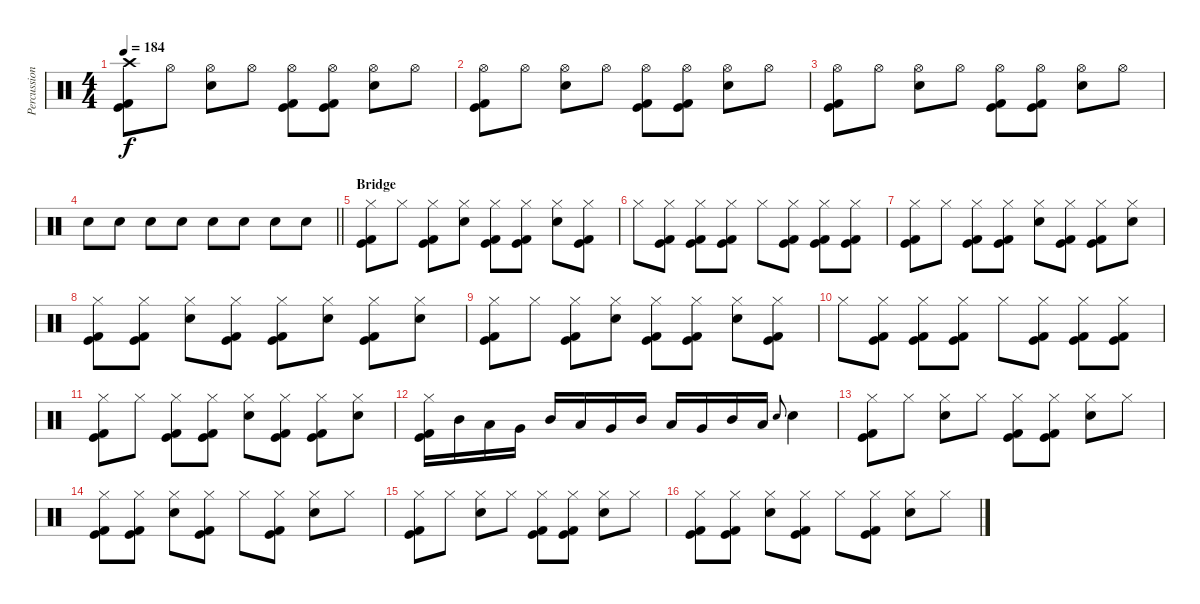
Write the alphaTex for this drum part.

\track ("Percussion" "Percussion") {instrument percussion}
\staff {score}
\articulation defaults
\ts (4 4)
\tempo 184
\clef neutral
\ks c
("Crash high (hit)" "Kick (hit)" "Kick (hit) 2").8{dy f} "Hi-Hat (open)".8 ("Hi-Hat (open)" "Electric Snare (hit)").8 "Hi-Hat (open)".8 ("Hi-Hat (open)" "Kick (hit)" "Kick (hit) 2").8 ("Hi-Hat (open)" "Kick (hit)" "Kick (hit) 2").8 ("Hi-Hat (open)" "Electric Snare (hit)").8 "Hi-Hat (open)".8 |
("Hi-Hat (open)" "Kick (hit)" "Kick (hit) 2").8 "Hi-Hat (open)".8 ("Hi-Hat (open)" "Electric Snare (hit)").8 "Hi-Hat (open)".8 ("Hi-Hat (open)" "Kick (hit)" "Kick (hit) 2").8 ("Hi-Hat (open)" "Kick (hit)" "Kick (hit) 2").8 ("Hi-Hat (open)" "Electric Snare (hit)").8 "Hi-Hat (open)".8 |
("Hi-Hat (open)" "Kick (hit)" "Kick (hit) 2").8 "Hi-Hat (open)".8 ("Hi-Hat (open)" "Electric Snare (hit)").8 "Hi-Hat (open)".8 ("Hi-Hat (open)" "Kick (hit)" "Kick (hit) 2").8 ("Hi-Hat (open)" "Kick (hit)" "Kick (hit) 2").8 ("Hi-Hat (open)" "Electric Snare (hit)").8 "Hi-Hat (open)".8 |
\barLineRight lightlight "Electric Snare (hit)".8 "Electric Snare (hit)".8 "Electric Snare (hit)".8 "Electric Snare (hit)".8 "Electric Snare (hit)".8 "Electric Snare (hit)".8 "Electric Snare (hit)".8 "Electric Snare (hit)".8
|
\section ("" "Bridge")
("Hi-Hat (closed)" "Kick (hit)" "Kick (hit) 2").8 "Hi-Hat (closed)".8 ("Hi-Hat (closed)" "Kick (hit)" "Kick (hit) 2").8 ("Hi-Hat (closed)" "Electric Snare (hit)").8 ("Hi-Hat (closed)" "Kick (hit)" "Kick (hit) 2").8 ("Hi-Hat (closed)" "Kick (hit)" "Kick (hit) 2").8 ("Hi-Hat (closed)" "Electric Snare (hit)").8 ("Hi-Hat (closed)" "Kick (hit)" "Kick (hit) 2").8 |
"Hi-Hat (closed)".8 ("Hi-Hat (closed)" "Kick (hit)" "Kick (hit) 2").8 ("Hi-Hat (closed)" "Kick (hit)" "Kick (hit) 2").8 ("Hi-Hat (closed)" "Kick (hit)" "Kick (hit) 2").8 "Hi-Hat (closed)".8 ("Hi-Hat (closed)" "Kick (hit)" "Kick (hit) 2").8 ("Hi-Hat (closed)" "Kick (hit)" "Kick (hit) 2").8 ("Hi-Hat (closed)" "Kick (hit)" "Kick (hit) 2").8 |
("Hi-Hat (closed)" "Kick (hit)" "Kick (hit) 2").8 "Hi-Hat (closed)".8 ("Hi-Hat (closed)" "Kick (hit)" "Kick (hit) 2").8 ("Hi-Hat (closed)" "Kick (hit)" "Kick (hit) 2").8 ("Hi-Hat (closed)" "Electric Snare (hit)").8 ("Hi-Hat (closed)" "Kick (hit)" "Kick (hit) 2").8 ("Hi-Hat (closed)" "Kick (hit)" "Kick (hit) 2").8 ("Hi-Hat (closed)" "Electric Snare (hit)").8 |
("Hi-Hat (closed)" "Kick (hit)" "Kick (hit) 2").8 ("Hi-Hat (closed)" "Kick (hit)" "Kick (hit) 2").8 ("Hi-Hat (closed)" "Electric Snare (hit)").8 ("Hi-Hat (closed)" "Kick (hit)" "Kick (hit) 2").8 ("Hi-Hat (closed)" "Kick (hit)" "Kick (hit) 2").8 ("Hi-Hat (closed)" "Electric Snare (hit)").8 ("Hi-Hat (closed)" "Kick (hit)" "Kick (hit) 2").8 ("Hi-Hat (closed)" "Electric Snare (hit)").8 |
("Hi-Hat (closed)" "Kick (hit)" "Kick (hit) 2").8 "Hi-Hat (closed)".8 ("Hi-Hat (closed)" "Kick (hit)" "Kick (hit) 2").8 ("Hi-Hat (closed)" "Electric Snare (hit)").8 ("Hi-Hat (closed)" "Kick (hit)" "Kick (hit) 2").8 ("Hi-Hat (closed)" "Kick (hit)" "Kick (hit) 2").8 ("Hi-Hat (closed)" "Electric Snare (hit)").8 ("Hi-Hat (closed)" "Kick (hit)" "Kick (hit) 2").8 |
"Hi-Hat (closed)".8 ("Hi-Hat (closed)" "Kick (hit)" "Kick (hit) 2").8 ("Hi-Hat (closed)" "Kick (hit)" "Kick (hit) 2").8 ("Hi-Hat (closed)" "Kick (hit)" "Kick (hit) 2").8 "Hi-Hat (closed)".8 ("Hi-Hat (closed)" "Kick (hit)" "Kick (hit) 2").8 ("Hi-Hat (closed)" "Kick (hit)" "Kick (hit) 2").8 ("Hi-Hat (closed)" "Kick (hit)" "Kick (hit) 2").8 |
("Hi-Hat (closed)" "Kick (hit)" "Kick (hit) 2").8 "Hi-Hat (closed)".8 ("Hi-Hat (closed)" "Kick (hit)" "Kick (hit) 2").8 ("Hi-Hat (closed)" "Kick (hit)" "Kick (hit) 2").8 ("Hi-Hat (closed)" "Electric Snare (hit)").8 ("Hi-Hat (closed)" "Kick (hit)" "Kick (hit) 2").8 ("Hi-Hat (closed)" "Kick (hit)" "Kick (hit) 2").8 ("Hi-Hat (closed)" "Electric Snare (hit)").8 |
("Hi-Hat (closed)" "Kick (hit)" "Kick (hit) 2").16 "Mid Tom (hit)".16 "Low Tom (hit)".16 "Very Low Tom (hit)".16 "Mid Tom (hit)".16 "Low Tom (hit)".16 "Very Low Tom (hit)".16 "Mid Tom (hit)".16 "Low Tom (hit)".16 "Very Low Tom (hit)".16 "Mid Tom (hit)".16 "Low Tom (hit)".16 "Electric Snare (hit)".8{gr onbeat} "Electric Snare (hit)".4 |
("Hi-Hat (closed)" "Kick (hit)" "Kick (hit) 2").8 "Hi-Hat (closed)".8 ("Hi-Hat (closed)" "Electric Snare (hit)").8 "Hi-Hat (closed)".8 ("Hi-Hat (closed)" "Kick (hit)" "Kick (hit) 2").8 ("Hi-Hat (closed)" "Kick (hit)" "Kick (hit) 2").8 ("Hi-Hat (closed)" "Electric Snare (hit)").8 "Hi-Hat (closed)".8 |
("Hi-Hat (closed)" "Kick (hit)" "Kick (hit) 2").8 ("Hi-Hat (closed)" "Kick (hit)" "Kick (hit) 2").8 ("Hi-Hat (closed)" "Electric Snare (hit)").8 ("Hi-Hat (closed)" "Kick (hit)" "Kick (hit) 2").8 "Hi-Hat (closed)".8 ("Hi-Hat (closed)" "Kick (hit)" "Kick (hit) 2").8 ("Hi-Hat (closed)" "Electric Snare (hit)").8 "Hi-Hat (closed)".8 |
("Hi-Hat (closed)" "Kick (hit)" "Kick (hit) 2").8 "Hi-Hat (closed)".8 ("Hi-Hat (closed)" "Electric Snare (hit)").8 "Hi-Hat (closed)".8 ("Hi-Hat (closed)" "Kick (hit)" "Kick (hit) 2").8 ("Hi-Hat (closed)" "Kick (hit)" "Kick (hit) 2").8 ("Hi-Hat (closed)" "Electric Snare (hit)").8 "Hi-Hat (closed)".8 |
("Hi-Hat (closed)" "Kick (hit)" "Kick (hit) 2").8 ("Hi-Hat (closed)" "Kick (hit)" "Kick (hit) 2").8 ("Hi-Hat (closed)" "Electric Snare (hit)").8 ("Hi-Hat (closed)" "Kick (hit)" "Kick (hit) 2").8 "Hi-Hat (closed)".8 ("Hi-Hat (closed)" "Kick (hit)" "Kick (hit) 2").8 ("Hi-Hat (closed)" "Electric Snare (hit)").8 "Hi-Hat (closed)".8
